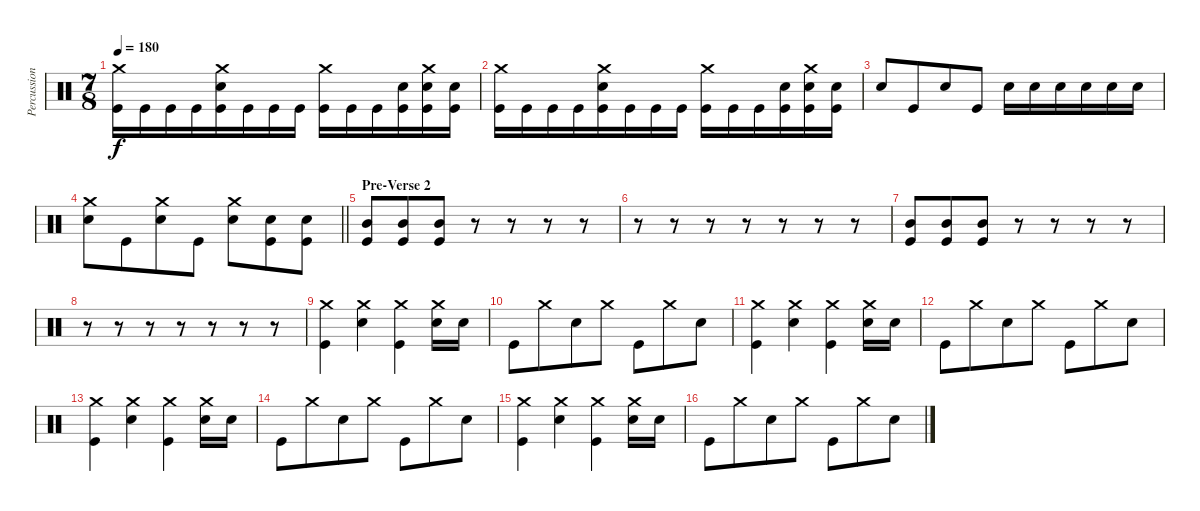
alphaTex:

\track ("Percussion" "Percussion") {instrument percussion}
\staff {score}
\articulation defaults
\ts (7 8)
\tempo 180
\clef neutral
\ks c
("Crash medium (hit)" "Kick (hit)").16{dy f} "Kick (hit)".16 "Kick (hit)".16 "Kick (hit)".16 ("Electric Snare (hit)" "Crash medium (hit)" "Kick (hit)").16 "Kick (hit)".16 "Kick (hit)".16 "Kick (hit)".16 ("Crash medium (hit)" "Kick (hit)").16 "Kick (hit)".16 "Kick (hit)".16 ("Electric Snare (hit)" "Kick (hit)").16 ("Electric Snare (hit)" "Crash medium (hit)" "Kick (hit)").16 ("Electric Snare (hit)" "Kick (hit)").16 |
("Crash medium (hit)" "Kick (hit)").16 "Kick (hit)".16 "Kick (hit)".16 "Kick (hit)".16 ("Electric Snare (hit)" "Crash medium (hit)" "Kick (hit)").16 "Kick (hit)".16 "Kick (hit)".16 "Kick (hit)".16 ("Crash medium (hit)" "Kick (hit)").16 "Kick (hit)".16 "Kick (hit)".16 ("Electric Snare (hit)" "Kick (hit)").16 ("Electric Snare (hit)" "Crash medium (hit)" "Kick (hit)").16 ("Electric Snare (hit)" "Kick (hit)").16 |
"Electric Snare (hit)".8 "Kick (hit)".8 "Electric Snare (hit)".8 "Kick (hit)".8 "Electric Snare (hit)".16 "Electric Snare (hit)".16 "Electric Snare (hit)".16 "Electric Snare (hit)".16 "Electric Snare (hit)".16 "Electric Snare (hit)".16 |
\barLineRight lightlight
("Electric Snare (hit)" "Crash medium (hit)").8 "Kick (hit)".8 ("Electric Snare (hit)" "Crash medium (hit)").8 "Kick (hit)".8 ("Electric Snare (hit)" "Crash medium (hit)").8 ("Electric Snare (hit)" "Kick (hit)").8 ("Electric Snare (hit)" "Kick (hit)").8 |
\section ("" "Pre-Verse 2")
("Mid Tom (hit)" "Kick (hit)").8 ("Mid Tom (hit)" "Kick (hit)").8 ("Mid Tom (hit)" "Kick (hit)").8 r.8 r.8 r.8 r.8 |
r.8 r.8 r.8 r.8 r.8 r.8 r.8 |
("Mid Tom (hit)" "Kick (hit)").8 ("Mid Tom (hit)" "Kick (hit)").8 ("Mid Tom (hit)" "Kick (hit)").8 r.8 r.8 r.8 r.8 |
r.8 r.8 r.8 r.8 r.8 r.8 r.8 |
("Crash medium (hit)" "Kick (hit)").4 ("Crash medium (hit)" "Electric Snare (hit)").4 ("Crash medium (hit)" "Kick (hit)").4 ("Crash medium (hit)" "Electric Snare (hit)").16 "Electric Snare (hit)".16 |
"Kick (hit)".8 "Crash medium (hit)".8 "Electric Snare (hit)".8 "Crash medium (hit)".8 "Kick (hit)".8 "Crash medium (hit)".8 "Electric Snare (hit)".8 |
("Crash medium (hit)" "Kick (hit)").4 ("Crash medium (hit)" "Electric Snare (hit)").4 ("Crash medium (hit)" "Kick (hit)").4 ("Crash medium (hit)" "Electric Snare (hit)").16 "Electric Snare (hit)".16 |
"Kick (hit)".8 "Crash medium (hit)".8 "Electric Snare (hit)".8 "Crash medium (hit)".8 "Kick (hit)".8 "Crash medium (hit)".8 "Electric Snare (hit)".8 |
("Crash medium (hit)" "Kick (hit)").4 ("Crash medium (hit)" "Electric Snare (hit)").4 ("Crash medium (hit)" "Kick (hit)").4 ("Crash medium (hit)" "Electric Snare (hit)").16 "Electric Snare (hit)".16 |
"Kick (hit)".8 "Crash medium (hit)".8 "Electric Snare (hit)".8 "Crash medium (hit)".8 "Kick (hit)".8 "Crash medium (hit)".8 "Electric Snare (hit)".8 |
("Crash medium (hit)" "Kick (hit)").4 ("Crash medium (hit)" "Electric Snare (hit)").4 ("Crash medium (hit)" "Kick (hit)").4 ("Crash medium (hit)" "Electric Snare (hit)").16 "Electric Snare (hit)".16 |
"Kick (hit)".8 "Crash medium (hit)".8 "Electric Snare (hit)".8 "Crash medium (hit)".8 "Kick (hit)".8 "Crash medium (hit)".8 "Electric Snare (hit)".8
